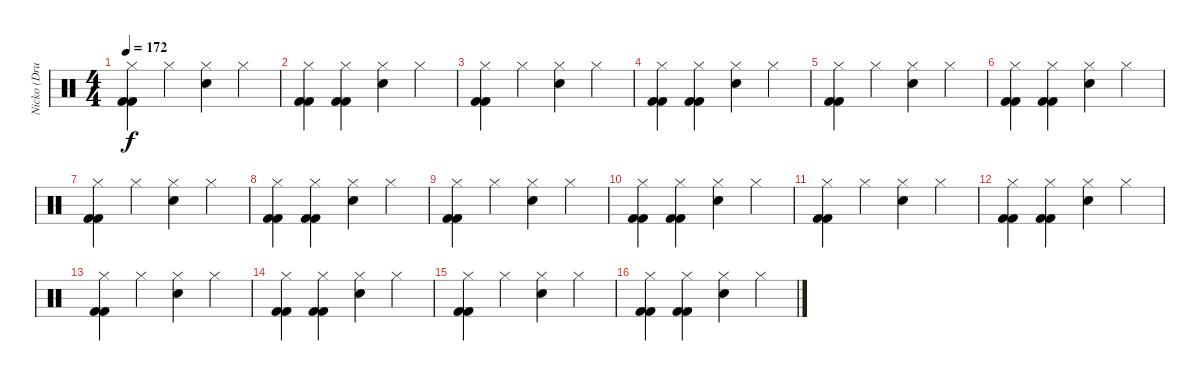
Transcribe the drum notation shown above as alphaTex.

\track ("Nicko (Drums)" "Nicko (Dru") {instrument percussion}
\staff {score}
\articulation defaults
\ts (4 4)
\tempo 172
\clef neutral
\ks c
("Hi-Hat (closed)" "Kick (hit) 2" "Kick (hit) 2").4{dy f} "Hi-Hat (closed)".4 ("Hi-Hat (closed)" "Snare (hit) 2").4 "Hi-Hat (closed)".4 |
("Hi-Hat (closed)" "Kick (hit) 2" "Kick (hit) 2").4 ("Hi-Hat (closed)" "Kick (hit) 2" "Kick (hit) 2").4 ("Hi-Hat (closed)" "Snare (hit) 2").4 "Hi-Hat (closed)".4 |
("Hi-Hat (closed)" "Kick (hit) 2" "Kick (hit) 2").4 "Hi-Hat (closed)".4 ("Hi-Hat (closed)" "Snare (hit) 2").4 "Hi-Hat (closed)".4 |
("Hi-Hat (closed)" "Kick (hit) 2" "Kick (hit) 2").4 ("Hi-Hat (closed)" "Kick (hit) 2" "Kick (hit) 2").4 ("Hi-Hat (closed)" "Snare (hit) 2").4 "Hi-Hat (closed)".4 |
("Hi-Hat (closed)" "Kick (hit) 2" "Kick (hit) 2").4 "Hi-Hat (closed)".4 ("Hi-Hat (closed)" "Snare (hit) 2").4 "Hi-Hat (closed)".4 |
("Hi-Hat (closed)" "Kick (hit) 2" "Kick (hit) 2").4 ("Hi-Hat (closed)" "Kick (hit) 2" "Kick (hit) 2").4 ("Hi-Hat (closed)" "Snare (hit) 2").4 "Hi-Hat (closed)".4 |
("Hi-Hat (closed)" "Kick (hit) 2" "Kick (hit) 2").4 "Hi-Hat (closed)".4 ("Hi-Hat (closed)" "Snare (hit) 2").4 "Hi-Hat (closed)".4 |
("Hi-Hat (closed)" "Kick (hit) 2" "Kick (hit) 2").4 ("Hi-Hat (closed)" "Kick (hit) 2" "Kick (hit) 2").4 ("Hi-Hat (closed)" "Snare (hit) 2").4 "Hi-Hat (closed)".4 |
("Hi-Hat (closed)" "Kick (hit) 2" "Kick (hit) 2").4 "Hi-Hat (closed)".4 ("Hi-Hat (closed)" "Snare (hit) 2").4 "Hi-Hat (closed)".4 |
("Hi-Hat (closed)" "Kick (hit) 2" "Kick (hit) 2").4 ("Hi-Hat (closed)" "Kick (hit) 2" "Kick (hit) 2").4 ("Hi-Hat (closed)" "Snare (hit) 2").4 "Hi-Hat (closed)".4 |
("Hi-Hat (closed)" "Kick (hit) 2" "Kick (hit) 2").4 "Hi-Hat (closed)".4 ("Hi-Hat (closed)" "Snare (hit) 2").4 "Hi-Hat (closed)".4 |
("Hi-Hat (closed)" "Kick (hit) 2" "Kick (hit) 2").4 ("Hi-Hat (closed)" "Kick (hit) 2" "Kick (hit) 2").4 ("Hi-Hat (closed)" "Snare (hit) 2").4 "Hi-Hat (closed)".4 |
("Hi-Hat (closed)" "Kick (hit) 2" "Kick (hit) 2").4 "Hi-Hat (closed)".4 ("Hi-Hat (closed)" "Snare (hit) 2").4 "Hi-Hat (closed)".4 |
("Hi-Hat (closed)" "Kick (hit) 2" "Kick (hit) 2").4 ("Hi-Hat (closed)" "Kick (hit) 2" "Kick (hit) 2").4 ("Hi-Hat (closed)" "Snare (hit) 2").4 "Hi-Hat (closed)".4 |
("Hi-Hat (closed)" "Kick (hit) 2" "Kick (hit) 2").4 "Hi-Hat (closed)".4 ("Hi-Hat (closed)" "Snare (hit) 2").4 "Hi-Hat (closed)".4 |
("Hi-Hat (closed)" "Kick (hit) 2" "Kick (hit) 2").4 ("Hi-Hat (closed)" "Kick (hit) 2" "Kick (hit) 2").4 ("Hi-Hat (closed)" "Snare (hit) 2").4 "Hi-Hat (closed)".4
